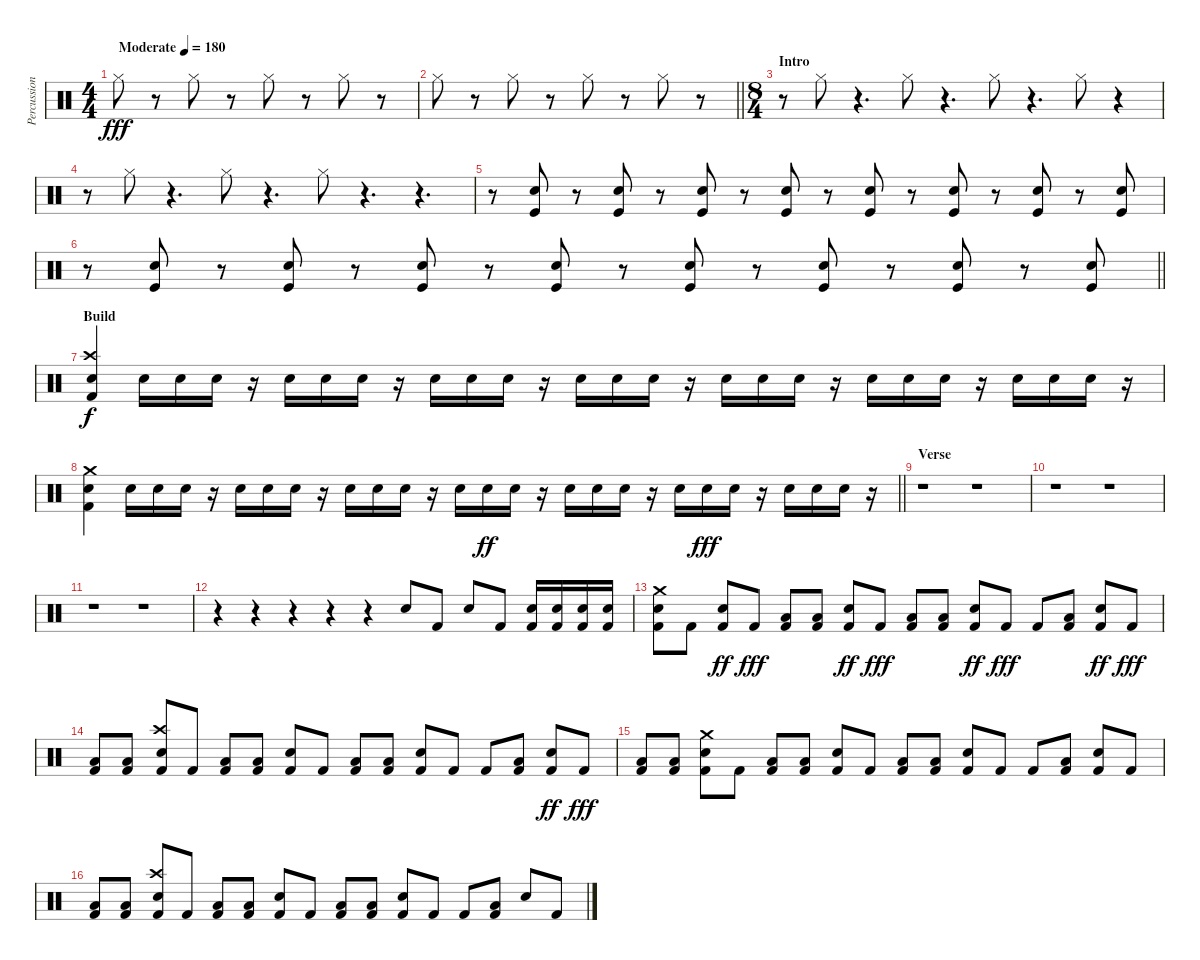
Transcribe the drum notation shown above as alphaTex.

\track ("Percussion" "Percussion") {instrument percussion}
\staff {score}
\articulation defaults
\ts (4 4)
\tempo (180 "Moderate")
\clef neutral
\ks c "Hi-Hat (closed)".8{dy fff}
r.8 "Hi-Hat (closed)".8 r.8 "Hi-Hat (closed)".8 r.8 "Hi-Hat (closed)".8 r.8 |
\barLineRight lightlight "Hi-Hat (closed)".8
r.8 "Hi-Hat (closed)".8 r.8 "Hi-Hat (closed)".8 r.8 "Hi-Hat (closed)".8 r.8 |
\ts (8 4)
\section ("" "Intro")
r.8 "Hi-Hat (closed)".8 r.4{d} "Hi-Hat (closed)".8 r.4{d} "Hi-Hat (closed)".8 r.4{d} "Hi-Hat (closed)".8 r.4 |
r.8 "Hi-Hat (closed)".8 r.4{d} "Hi-Hat (closed)".8 r.4{d} "Hi-Hat (closed)".8 r.4{d} r.4{d} |
r.8 ("Electric Snare (hit)" "Kick (hit)").8 r.8 ("Electric Snare (hit)" "Kick (hit)").8 r.8 ("Electric Snare (hit)" "Kick (hit)").8 r.8 ("Electric Snare (hit)" "Kick (hit)").8 r.8 ("Electric Snare (hit)" "Kick (hit)").8 r.8 ("Electric Snare (hit)" "Kick (hit)").8 r.8 ("Electric Snare (hit)" "Kick (hit)").8 r.8 ("Electric Snare (hit)" "Kick (hit)").8 |
\barLineRight lightlight
r.8 ("Electric Snare (hit)" "Kick (hit)").8 r.8 ("Electric Snare (hit)" "Kick (hit)").8 r.8 ("Electric Snare (hit)" "Kick (hit)").8 r.8 ("Electric Snare (hit)" "Kick (hit)").8 r.8 ("Electric Snare (hit)" "Kick (hit)").8 r.8 ("Electric Snare (hit)" "Kick (hit)").8 r.8 ("Electric Snare (hit)" "Kick (hit)").8 r.8 ("Electric Snare (hit)" "Kick (hit)").8 |
\section ("" "Build")
("Crash high (hit)" "Electric Snare (hit)" "Kick (hit) 2").4{dy f} "Electric Snare (hit)".16 "Electric Snare (hit)".16 "Electric Snare (hit)".16 r.16 "Electric Snare (hit)".16 "Electric Snare (hit)".16 "Electric Snare (hit)".16 r.16 "Electric Snare (hit)".16 "Electric Snare (hit)".16 "Electric Snare (hit)".16 r.16 "Electric Snare (hit)".16 "Electric Snare (hit)".16 "Electric Snare (hit)".16 r.16 "Electric Snare (hit)".16 "Electric Snare (hit)".16 "Electric Snare (hit)".16 r.16 "Electric Snare (hit)".16 "Electric Snare (hit)".16 "Electric Snare (hit)".16 r.16 "Electric Snare (hit)".16 "Electric Snare (hit)".16 "Electric Snare (hit)".16 r.16 |
\barLineRight lightlight
("Crash medium (hit)" "Electric Snare (hit)" "Kick (hit) 2").4 "Electric Snare (hit)".16 "Electric Snare (hit)".16 "Electric Snare (hit)".16 r.16 "Electric Snare (hit)".16 "Electric Snare (hit)".16 "Electric Snare (hit)".16 r.16 "Electric Snare (hit)".16 "Electric Snare (hit)".16 "Electric Snare (hit)".16 r.16 "Electric Snare (hit)".16 "Electric Snare (hit)".16{dy ff} "Electric Snare (hit)".16 r.16 "Electric Snare (hit)".16 "Electric Snare (hit)".16 "Electric Snare (hit)".16 r.16 "Electric Snare (hit)".16 "Electric Snare (hit)".16{dy fff} "Electric Snare (hit)".16 r.16 "Electric Snare (hit)".16 "Electric Snare (hit)".16 "Electric Snare (hit)".16 r.16 |
\section ("" "Verse")
r.1 r.1 |
r.1 r.1 |
r.1 r.1 |
r.4 r.4 r.4 r.4 r.4 "Electric Snare (hit)".8 "Kick (hit) 2".8 "Electric Snare (hit)".8 "Kick (hit) 2".8 ("Electric Snare (hit)" "Kick (hit) 2").16 ("Electric Snare (hit)" "Kick (hit) 2").16 ("Electric Snare (hit)" "Kick (hit) 2").16 ("Electric Snare (hit)" "Kick (hit) 2").16 |
("Crash medium (hit)" "Electric Snare (hit)" "Kick (hit) 2").8 "Kick (hit) 2".8 ("Electric Snare (hit)" "Kick (hit) 2").8{dy ff} "Kick (hit) 2".8{dy fff} ("Low Floor Tom (hit)" "Kick (hit) 2").8 ("Low Floor Tom (hit)" "Kick (hit) 2").8 ("Electric Snare (hit)" "Kick (hit) 2").8{dy ff} "Kick (hit) 2".8{dy fff} ("Low Floor Tom (hit)" "Kick (hit) 2").8 ("Low Floor Tom (hit)" "Kick (hit) 2").8 ("Electric Snare (hit)" "Kick (hit) 2").8{dy ff} "Kick (hit) 2".8{dy fff} "Kick (hit) 2".8 ("Low Floor Tom (hit)" "Kick (hit) 2").8 ("Electric Snare (hit)" "Kick (hit) 2").8{dy ff} "Kick (hit) 2".8{dy fff} |
("Low Floor Tom (hit)" "Kick (hit) 2").8 ("Low Floor Tom (hit)" "Kick (hit) 2").8 ("Crash high (hit)" "Electric Snare (hit)" "Kick (hit) 2").8 "Kick (hit) 2".8 ("Low Floor Tom (hit)" "Kick (hit) 2").8 ("Low Floor Tom (hit)" "Kick (hit) 2").8 ("Electric Snare (hit)" "Kick (hit) 2").8 "Kick (hit) 2".8 ("Low Floor Tom (hit)" "Kick (hit) 2").8 ("Low Floor Tom (hit)" "Kick (hit) 2").8 ("Electric Snare (hit)" "Kick (hit) 2").8 "Kick (hit) 2".8 "Kick (hit) 2".8 ("Low Floor Tom (hit)" "Kick (hit) 2").8 ("Electric Snare (hit)" "Kick (hit) 2").8{dy ff} "Kick (hit) 2".8{dy fff} |
("Low Floor Tom (hit)" "Kick (hit) 2").8 ("Low Floor Tom (hit)" "Kick (hit) 2").8 ("Crash medium (hit)" "Electric Snare (hit)" "Kick (hit) 2").8 "Kick (hit) 2".8 ("Low Floor Tom (hit)" "Kick (hit) 2").8 ("Low Floor Tom (hit)" "Kick (hit) 2").8 ("Electric Snare (hit)" "Kick (hit) 2").8 "Kick (hit) 2".8 ("Low Floor Tom (hit)" "Kick (hit) 2").8 ("Low Floor Tom (hit)" "Kick (hit) 2").8 ("Electric Snare (hit)" "Kick (hit) 2").8 "Kick (hit) 2".8 "Kick (hit) 2".8 ("Low Floor Tom (hit)" "Kick (hit) 2").8 ("Electric Snare (hit)" "Kick (hit) 2").8 "Kick (hit) 2".8 |
("Low Floor Tom (hit)" "Kick (hit) 2").8 ("Low Floor Tom (hit)" "Kick (hit) 2").8 ("Crash high (hit)" "Electric Snare (hit)" "Kick (hit) 2").8 "Kick (hit) 2".8 ("Low Floor Tom (hit)" "Kick (hit) 2").8 ("Low Floor Tom (hit)" "Kick (hit) 2").8 ("Electric Snare (hit)" "Kick (hit) 2").8 "Kick (hit) 2".8 ("Low Floor Tom (hit)" "Kick (hit) 2").8 ("Low Floor Tom (hit)" "Kick (hit) 2").8 ("Electric Snare (hit)" "Kick (hit) 2").8 "Kick (hit) 2".8 "Kick (hit) 2".8 ("Low Floor Tom (hit)" "Kick (hit) 2").8 "Electric Snare (hit)".8 "Kick (hit) 2".8
